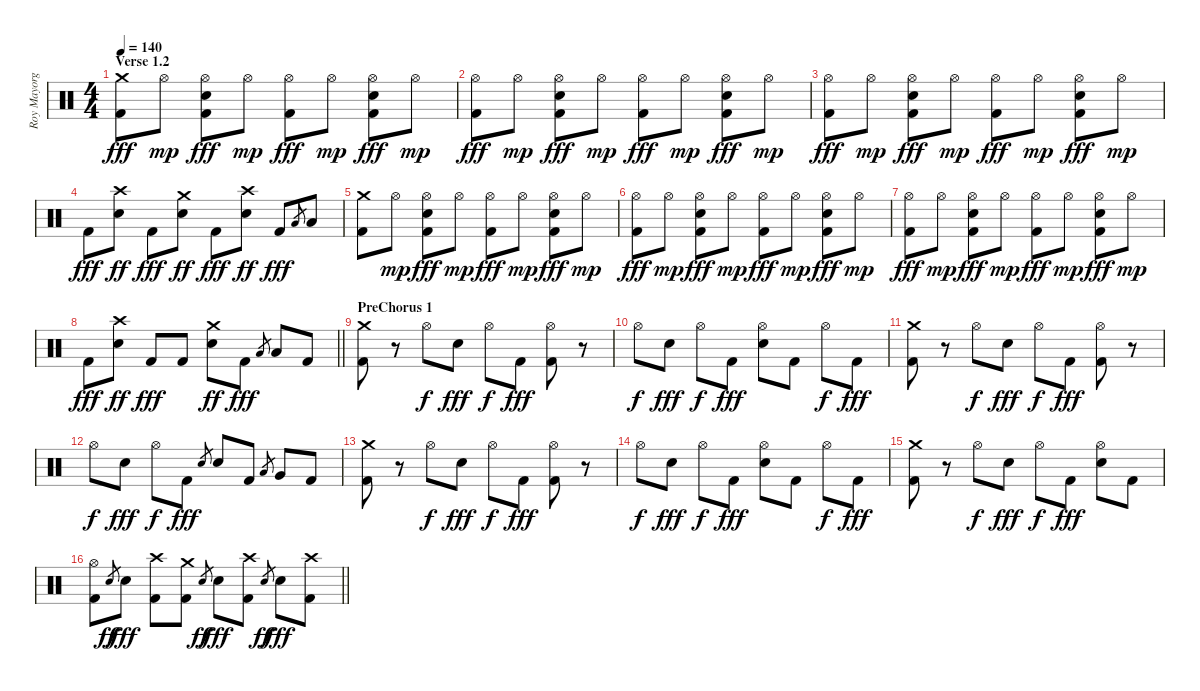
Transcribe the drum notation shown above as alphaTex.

\track ("Roy Mayorga" "Roy Mayorg") {instrument percussion}
\staff {score}
\articulation defaults
\ts (4 4)
\section ("" "Verse 1.2")
\tempo 140
\clef neutral
\ks c
("Crash medium (hit)" "Kick (hit) 2").8{dy fff} "Hi-Hat (open)".8{dy mp} ("Hi-Hat (open)" "Electric Snare (hit)" "Kick (hit) 2").8{dy fff} "Hi-Hat (open)".8{dy mp} ("Hi-Hat (open)" "Kick (hit) 2").8{dy fff} "Hi-Hat (open)".8{dy mp} ("Hi-Hat (open)" "Electric Snare (hit)" "Kick (hit) 2").8{dy fff} "Hi-Hat (open)".8{dy mp} |
("Hi-Hat (open)" "Kick (hit) 2").8{dy fff} "Hi-Hat (open)".8{dy mp} ("Hi-Hat (open)" "Electric Snare (hit)" "Kick (hit) 2").8{dy fff} "Hi-Hat (open)".8{dy mp} ("Hi-Hat (open)" "Kick (hit) 2").8{dy fff} "Hi-Hat (open)".8{dy mp} ("Hi-Hat (open)" "Electric Snare (hit)" "Kick (hit) 2").8{dy fff} "Hi-Hat (open)".8{dy mp} |
("Hi-Hat (open)" "Kick (hit) 2").8{dy fff} "Hi-Hat (open)".8{dy mp} ("Hi-Hat (open)" "Electric Snare (hit)" "Kick (hit) 2").8{dy fff} "Hi-Hat (open)".8{dy mp} ("Hi-Hat (open)" "Kick (hit) 2").8{dy fff} "Hi-Hat (open)".8{dy mp} ("Hi-Hat (open)" "Electric Snare (hit)" "Kick (hit) 2").8{dy fff} "Hi-Hat (open)".8{dy mp} |
"Kick (hit) 2".8{dy fff} ("Crash high (hit)" "Electric Snare (hit)").8{dy ff} "Kick (hit) 2".8{dy fff} ("Crash medium (hit)" "Electric Snare (hit)").8{dy ff} "Kick (hit) 2".8{dy fff} ("Crash high (hit)" "Electric Snare (hit)").8{dy ff} "Kick (hit) 2".8{dy fff} "Low Floor Tom (hit)".8{gr} "Low Floor Tom (hit)".8 |
("Crash medium (hit)" "Kick (hit) 2").8 "Hi-Hat (open)".8{dy mp} ("Hi-Hat (open)" "Electric Snare (hit)" "Kick (hit) 2").8{dy fff} "Hi-Hat (open)".8{dy mp} ("Hi-Hat (open)" "Kick (hit) 2").8{dy fff} "Hi-Hat (open)".8{dy mp} ("Hi-Hat (open)" "Electric Snare (hit)" "Kick (hit) 2").8{dy fff} "Hi-Hat (open)".8{dy mp} |
("Hi-Hat (open)" "Kick (hit) 2").8{dy fff} "Hi-Hat (open)".8{dy mp} ("Hi-Hat (open)" "Electric Snare (hit)" "Kick (hit) 2").8{dy fff} "Hi-Hat (open)".8{dy mp} ("Hi-Hat (open)" "Kick (hit) 2").8{dy fff} "Hi-Hat (open)".8{dy mp} ("Hi-Hat (open)" "Electric Snare (hit)" "Kick (hit) 2").8{dy fff} "Hi-Hat (open)".8{dy mp} |
("Hi-Hat (open)" "Kick (hit) 2").8{dy fff} "Hi-Hat (open)".8{dy mp} ("Hi-Hat (open)" "Electric Snare (hit)" "Kick (hit) 2").8{dy fff} "Hi-Hat (open)".8{dy mp} ("Hi-Hat (open)" "Kick (hit) 2").8{dy fff} "Hi-Hat (open)".8{dy mp} ("Hi-Hat (open)" "Electric Snare (hit)" "Kick (hit) 2").8{dy fff} "Hi-Hat (open)".8{dy mp} |
\barLineRight lightlight "Kick (hit) 2".8{dy fff}
("Crash high (hit)" "Electric Snare (hit)").8{dy ff} "Kick (hit) 2".8{dy fff} "Kick (hit) 2".8 ("Crash medium (hit)" "Electric Snare (hit)").8{dy ff} "Kick (hit) 2".8{dy fff} "Low Floor Tom (hit)".8{gr} "Low Floor Tom (hit)".8 "Kick (hit) 2".8 |
\section ("" "PreChorus 1")
("Crash medium (hit)" "Kick (hit) 2").8 r.8 "Hi-Hat (open)".8{dy f} "Electric Snare (hit)".8{dy fff} "Hi-Hat (open)".8{dy f} "Kick (hit) 2".8{dy fff} ("Hi-Hat (open)" "Kick (hit) 2").8 r.8 |
"Hi-Hat (open)".8{dy f} "Electric Snare (hit)".8{dy fff} "Hi-Hat (open)".8{dy f} "Kick (hit) 2".8{dy fff} ("Hi-Hat (open)" "Electric Snare (hit)").8 "Kick (hit) 2".8 "Hi-Hat (open)".8{dy f} "Kick (hit) 2".8{dy fff} |
("Crash medium (hit)" "Kick (hit) 2").8 r.8 "Hi-Hat (open)".8{dy f} "Electric Snare (hit)".8{dy fff} "Hi-Hat (open)".8{dy f} "Kick (hit) 2".8{dy fff} ("Hi-Hat (open)" "Kick (hit) 2").8 r.8 |
"Hi-Hat (open)".8{dy f} "Electric Snare (hit)".8{dy fff} "Hi-Hat (open)".8{dy f} "Kick (hit) 2".8{dy fff} "Electric Snare (hit)".8{gr} "Electric Snare (hit)".8 "Kick (hit) 2".8 "Low Floor Tom (hit)".8{gr} "Very Low Tom (hit)".8 "Kick (hit) 2".8 |
("Crash medium (hit)" "Kick (hit) 2").8 r.8 "Hi-Hat (open)".8{dy f} "Electric Snare (hit)".8{dy fff} "Hi-Hat (open)".8{dy f} "Kick (hit) 2".8{dy fff} ("Hi-Hat (open)" "Kick (hit) 2").8 r.8 |
"Hi-Hat (open)".8{dy f} "Electric Snare (hit)".8{dy fff} "Hi-Hat (open)".8{dy f} "Kick (hit) 2".8{dy fff} ("Hi-Hat (open)" "Electric Snare (hit)").8 "Kick (hit) 2".8 "Hi-Hat (open)".8{dy f} "Kick (hit) 2".8{dy fff} |
("Crash medium (hit)" "Kick (hit) 2").8 r.8 "Hi-Hat (open)".8{dy f} "Electric Snare (hit)".8{dy fff} "Hi-Hat (open)".8{dy f} "Kick (hit) 2".8{dy fff} ("Hi-Hat (open)" "Electric Snare (hit)").8 "Kick (hit) 2".8 |
\barLineRight lightlight
("Hi-Hat (open)" "Kick (hit) 2").8 "Electric Snare (hit)".8{gr dy ff} "Electric Snare (hit)".8{dy fff} ("Crash high (hit)" "Kick (hit) 2").8 ("Crash medium (hit)" "Kick (hit) 2").8 "Electric Snare (hit)".8{gr dy ff} "Electric Snare (hit)".8{dy fff} ("Crash high (hit)" "Kick (hit) 2").8 "Electric Snare (hit)".8{gr dy ff} "Electric Snare (hit)".8{dy fff} ("Crash high (hit)" "Kick (hit) 2").8
